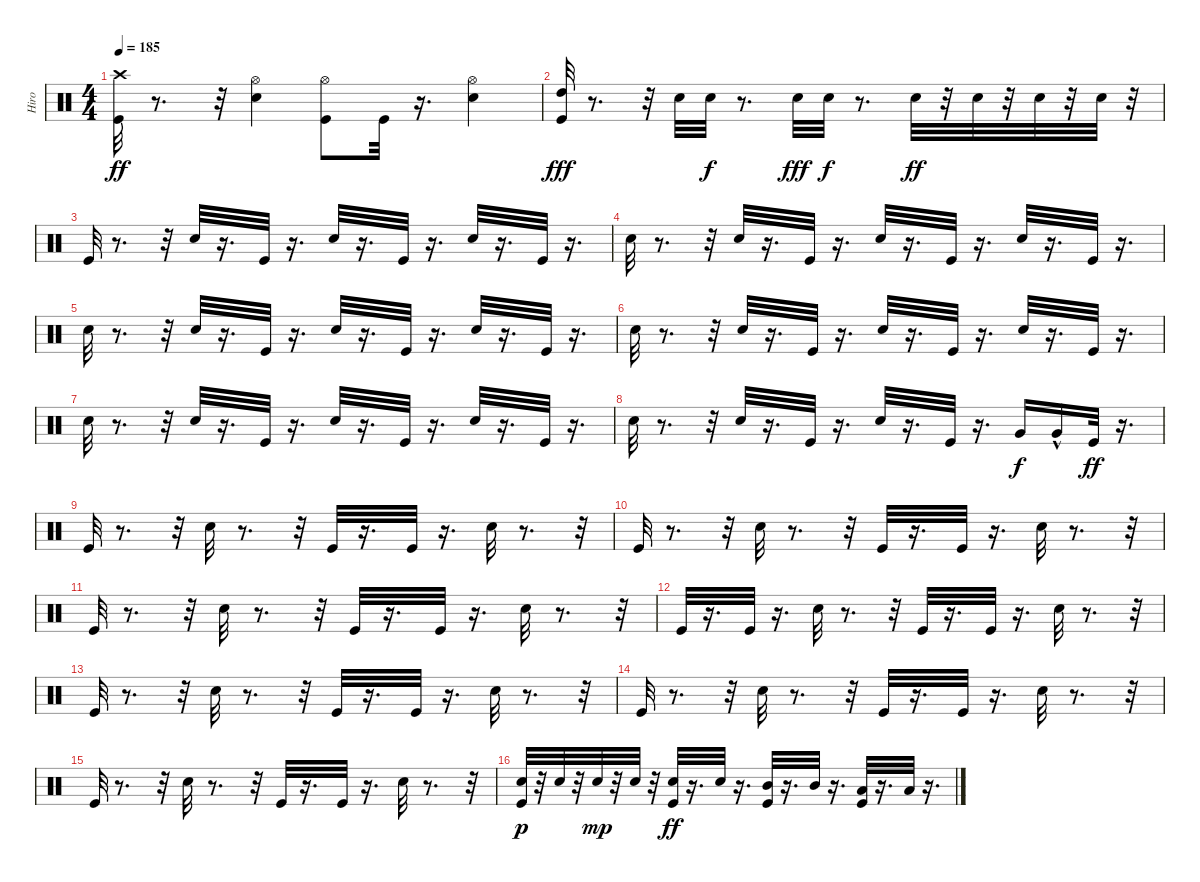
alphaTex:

\track ("Hiro" "Hiro") {instrument percussion}
\staff {score}
\articulation defaults
\ts (4 4)
\tempo 185
\clef neutral
\ks c
("Crash high (hit)" "Kick (hit)").32{dy ff} r.8{d} r.32 ("Hi-Hat (open)" "Electric Snare (hit)").4 ("Hi-Hat (open)" "Kick (hit)").8 "Kick (hit)".32 r.16{d} ("Hi-Hat (open)" "Electric Snare (hit)").4 |
("Kick (hit)" "High Tom (hit)").32{dy fff} r.8{d} r.32 "Snare (hit) 2".32 "Snare (hit) 2".32{dy f} r.8{d} "Snare (hit) 2".32{dy fff} "Snare (hit) 2".32{dy f} r.8{d} "Snare (hit) 2".32{dy ff} r.32 "Snare (hit) 2".32 r.32 "Snare (hit) 2".32 r.32 "Snare (hit) 2".32 r.32 |
"Kick (hit)".32 r.8{d} r.32 "Electric Snare (hit)".32 r.16{d} "Kick (hit)".32 r.16{d} "Electric Snare (hit)".32 r.16{d} "Kick (hit)".32 r.16{d} "Electric Snare (hit)".32 r.16{d} "Kick (hit)".32 r.16{d} |
"Electric Snare (hit)".32 r.8{d} r.32 "Electric Snare (hit)".32 r.16{d} "Kick (hit)".32 r.16{d} "Electric Snare (hit)".32 r.16{d} "Kick (hit)".32 r.16{d} "Electric Snare (hit)".32 r.16{d} "Kick (hit)".32 r.16{d} |
"Electric Snare (hit)".32 r.8{d} r.32 "Electric Snare (hit)".32 r.16{d} "Kick (hit)".32 r.16{d} "Electric Snare (hit)".32 r.16{d} "Kick (hit)".32 r.16{d} "Electric Snare (hit)".32 r.16{d} "Kick (hit)".32 r.16{d} |
"Electric Snare (hit)".32 r.8{d} r.32 "Electric Snare (hit)".32 r.16{d} "Kick (hit)".32 r.16{d} "Electric Snare (hit)".32 r.16{d} "Kick (hit)".32 r.16{d} "Electric Snare (hit)".32 r.16{d} "Kick (hit)".32 r.16{d} |
"Electric Snare (hit)".32 r.8{d} r.32 "Electric Snare (hit)".32 r.16{d} "Kick (hit)".32 r.16{d} "Electric Snare (hit)".32 r.16{d} "Kick (hit)".32 r.16{d} "Electric Snare (hit)".32 r.16{d} "Kick (hit)".32 r.16{d} |
"Electric Snare (hit)".32 r.8{d} r.32 "Electric Snare (hit)".32 r.16{d} "Kick (hit)".32 r.16{d} "Electric Snare (hit)".32 r.16{d} "Kick (hit)".32 r.16{d} "Very Low Tom (hit)".16{dy f} "Very Low Tom (hit)"{hac}.16 "Kick (hit)".32{dy ff} r.16{d} |
"Kick (hit)".32 r.8{d} r.32 "Electric Snare (hit)".32 r.8{d} r.32 "Kick (hit)".32 r.16{d} "Kick (hit)".32 r.16{d} "Electric Snare (hit)".32 r.8{d} r.32 |
"Kick (hit)".32 r.8{d} r.32 "Electric Snare (hit)".32 r.8{d} r.32 "Kick (hit)".32 r.16{d} "Kick (hit)".32 r.16{d} "Electric Snare (hit)".32 r.8{d} r.32 |
"Kick (hit)".32 r.8{d} r.32 "Electric Snare (hit)".32 r.8{d} r.32 "Kick (hit)".32 r.16{d} "Kick (hit)".32 r.16{d} "Electric Snare (hit)".32 r.8{d} r.32 |
"Kick (hit)".32 r.16{d} "Kick (hit)".32 r.16{d} "Electric Snare (hit)".32 r.8{d} r.32 "Kick (hit)".32 r.16{d} "Kick (hit)".32 r.16{d} "Electric Snare (hit)".32 r.8{d} r.32 |
"Kick (hit)".32 r.8{d} r.32 "Electric Snare (hit)".32 r.8{d} r.32 "Kick (hit)".32 r.16{d} "Kick (hit)".32 r.16{d} "Electric Snare (hit)".32 r.8{d} r.32 |
"Kick (hit)".32 r.8{d} r.32 "Electric Snare (hit)".32 r.8{d} r.32 "Kick (hit)".32 r.16{d} "Kick (hit)".32 r.16{d} "Electric Snare (hit)".32 r.8{d} r.32 |
"Kick (hit)".32 r.8{d} r.32 "Electric Snare (hit)".32 r.8{d} r.32 "Kick (hit)".32 r.16{d} "Kick (hit)".32 r.16{d} "Electric Snare (hit)".32 r.8{d} r.32 |
("Kick (hit)" "Snare (hit) 2").32{dy p} r.32 "Snare (hit) 2".32 r.32 "Snare (hit) 2".32{dy mp} r.32 "Snare (hit) 2".32 r.32 ("Electric Snare (hit)" "Kick (hit)").32{dy ff} r.16{d} "Electric Snare (hit)".32 r.16{d} ("Mid Tom (hit)" "Kick (hit)").32 r.16{d} "Mid Tom (hit)".32 r.16{d} ("Low Tom (hit)" "Kick (hit)").32 r.16{d} "Low Tom (hit)".32 r.16{d}
